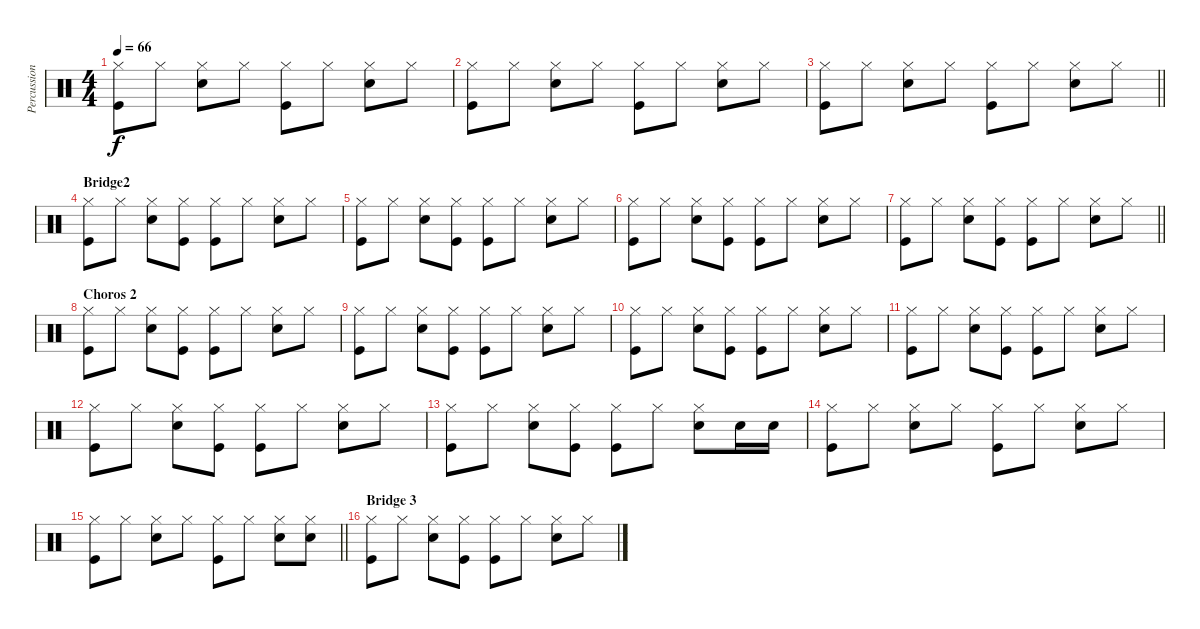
\track ("Percussion" "Percussion") {instrument percussion}
\staff {score}
\articulation defaults
\ts (4 4)
\tempo 66
\clef neutral
\ks c
("Hi-Hat (closed)" "Kick (hit)").8{dy f} "Hi-Hat (closed)".8 ("Hi-Hat (closed)" "Snare (hit) 2").8 "Hi-Hat (closed)".8 ("Hi-Hat (closed)" "Kick (hit)").8 "Hi-Hat (closed)".8 ("Hi-Hat (closed)" "Snare (hit) 2").8 "Hi-Hat (closed)".8 |
("Hi-Hat (closed)" "Kick (hit)").8 "Hi-Hat (closed)".8 ("Hi-Hat (closed)" "Snare (hit) 2").8 "Hi-Hat (closed)".8 ("Hi-Hat (closed)" "Kick (hit)").8 "Hi-Hat (closed)".8 ("Hi-Hat (closed)" "Snare (hit) 2").8 "Hi-Hat (closed)".8 |
\barLineRight lightlight
("Hi-Hat (closed)" "Kick (hit)").8 "Hi-Hat (closed)".8 ("Hi-Hat (closed)" "Snare (hit) 2").8 "Hi-Hat (closed)".8 ("Hi-Hat (closed)" "Kick (hit)").8 "Hi-Hat (closed)".8 ("Hi-Hat (closed)" "Snare (hit) 2").8 "Hi-Hat (closed)".8 |
\section ("" "Bridge2")
("Hi-Hat (closed)" "Kick (hit)").8 "Hi-Hat (closed)".8 ("Hi-Hat (closed)" "Snare (hit) 2").8 ("Hi-Hat (closed)" "Kick (hit)").8 ("Hi-Hat (closed)" "Kick (hit)").8 "Hi-Hat (closed)".8 ("Hi-Hat (closed)" "Snare (hit) 2").8 "Hi-Hat (closed)".8 |
("Hi-Hat (closed)" "Kick (hit)").8 "Hi-Hat (closed)".8 ("Hi-Hat (closed)" "Snare (hit) 2").8 ("Hi-Hat (closed)" "Kick (hit)").8 ("Hi-Hat (closed)" "Kick (hit)").8 "Hi-Hat (closed)".8 ("Hi-Hat (closed)" "Snare (hit) 2").8 "Hi-Hat (closed)".8 |
("Hi-Hat (closed)" "Kick (hit)").8 "Hi-Hat (closed)".8 ("Hi-Hat (closed)" "Snare (hit) 2").8 ("Hi-Hat (closed)" "Kick (hit)").8 ("Hi-Hat (closed)" "Kick (hit)").8 "Hi-Hat (closed)".8 ("Hi-Hat (closed)" "Snare (hit) 2").8 "Hi-Hat (closed)".8 |
\barLineRight lightlight
("Hi-Hat (closed)" "Kick (hit)").8 "Hi-Hat (closed)".8 ("Hi-Hat (closed)" "Snare (hit) 2").8 ("Hi-Hat (closed)" "Kick (hit)").8 ("Hi-Hat (closed)" "Kick (hit)").8 "Hi-Hat (closed)".8 ("Hi-Hat (closed)" "Snare (hit) 2").8 "Hi-Hat (closed)".8 |
\section ("" "Choros 2")
("Hi-Hat (closed)" "Kick (hit)").8 "Hi-Hat (closed)".8 ("Hi-Hat (closed)" "Snare (hit) 2").8 ("Hi-Hat (closed)" "Kick (hit)").8 ("Hi-Hat (closed)" "Kick (hit)").8 "Hi-Hat (closed)".8 ("Hi-Hat (closed)" "Snare (hit) 2").8 "Hi-Hat (closed)".8 |
("Hi-Hat (closed)" "Kick (hit)").8 "Hi-Hat (closed)".8 ("Hi-Hat (closed)" "Snare (hit) 2").8 ("Hi-Hat (closed)" "Kick (hit)").8 ("Hi-Hat (closed)" "Kick (hit)").8 "Hi-Hat (closed)".8 ("Hi-Hat (closed)" "Snare (hit) 2").8 "Hi-Hat (closed)".8 |
("Hi-Hat (closed)" "Kick (hit)").8 "Hi-Hat (closed)".8 ("Hi-Hat (closed)" "Snare (hit) 2").8 ("Hi-Hat (closed)" "Kick (hit)").8 ("Hi-Hat (closed)" "Kick (hit)").8 "Hi-Hat (closed)".8 ("Hi-Hat (closed)" "Snare (hit) 2").8 "Hi-Hat (closed)".8 |
("Hi-Hat (closed)" "Kick (hit)").8 "Hi-Hat (closed)".8 ("Hi-Hat (closed)" "Snare (hit) 2").8 ("Hi-Hat (closed)" "Kick (hit)").8 ("Hi-Hat (closed)" "Kick (hit)").8 "Hi-Hat (closed)".8 ("Hi-Hat (closed)" "Snare (hit) 2").8 "Hi-Hat (closed)".8 |
("Hi-Hat (closed)" "Kick (hit)").8 "Hi-Hat (closed)".8 ("Hi-Hat (closed)" "Snare (hit) 2").8 ("Hi-Hat (closed)" "Kick (hit)").8 ("Hi-Hat (closed)" "Kick (hit)").8 "Hi-Hat (closed)".8 ("Hi-Hat (closed)" "Snare (hit) 2").8 "Hi-Hat (closed)".8 |
("Hi-Hat (closed)" "Kick (hit)").8 "Hi-Hat (closed)".8 ("Hi-Hat (closed)" "Snare (hit) 2").8 ("Hi-Hat (closed)" "Kick (hit)").8 ("Hi-Hat (closed)" "Kick (hit)").8 "Hi-Hat (closed)".8 ("Hi-Hat (closed)" "Snare (hit) 2").8 "Snare (hit) 2".16 "Snare (hit) 2".16 |
("Hi-Hat (closed)" "Kick (hit)").8 "Hi-Hat (closed)".8 ("Hi-Hat (closed)" "Snare (hit) 2").8 "Hi-Hat (closed)".8 ("Hi-Hat (closed)" "Kick (hit)").8 "Hi-Hat (closed)".8 ("Hi-Hat (closed)" "Snare (hit) 2").8 "Hi-Hat (closed)".8 |
\barLineRight lightlight
("Hi-Hat (closed)" "Kick (hit)").8 "Hi-Hat (closed)".8 ("Hi-Hat (closed)" "Snare (hit) 2").8 "Hi-Hat (closed)".8 ("Hi-Hat (closed)" "Kick (hit)").8 "Hi-Hat (closed)".8 ("Hi-Hat (closed)" "Snare (hit) 2").8 ("Hi-Hat (closed)" "Snare (hit) 2").8 |
\section ("" "Bridge 3")
("Hi-Hat (closed)" "Kick (hit)").8 "Hi-Hat (closed)".8 ("Hi-Hat (closed)" "Snare (hit) 2").8 ("Hi-Hat (closed)" "Kick (hit)").8 ("Hi-Hat (closed)" "Kick (hit)").8 "Hi-Hat (closed)".8 ("Hi-Hat (closed)" "Snare (hit) 2").8 "Hi-Hat (closed)".8
